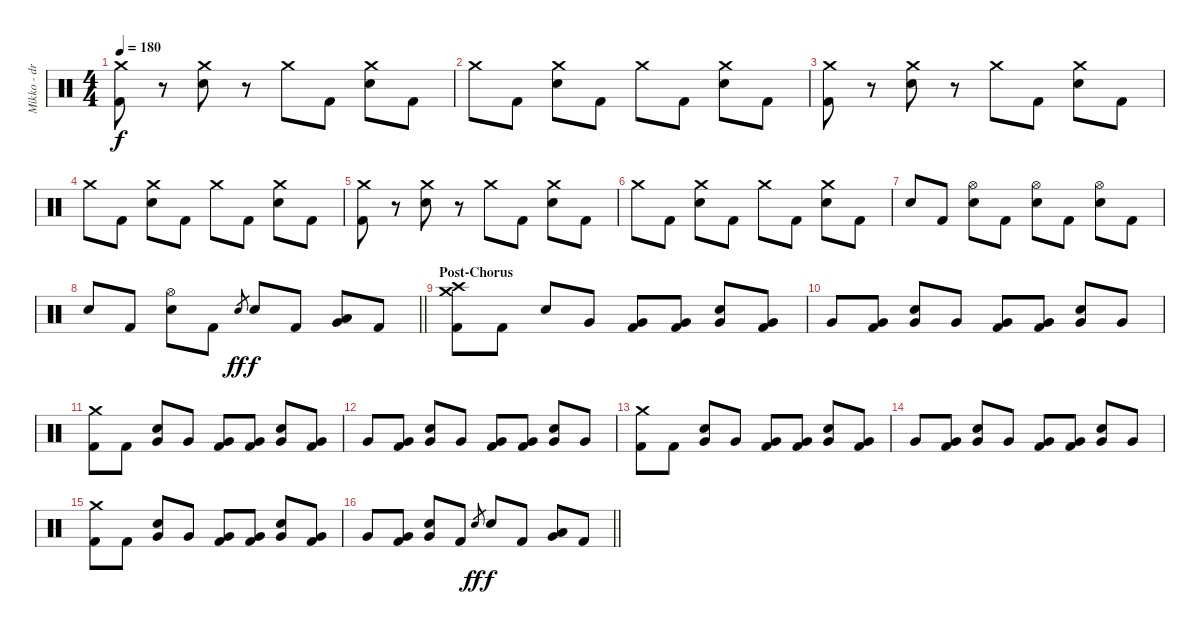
\track ("Mikko - drums" "Mikko - dr") {instrument percussion}
\staff {score}
\articulation defaults
\ts (4 4)
\tempo 180
\clef neutral
\ks c
("Crash medium (hit)" "Kick (hit) 2").8{dy f} r.8 ("Crash medium (hit)" "Snare (hit) 2").8 r.8 "Crash medium (hit)".8 "Kick (hit) 2".8 ("Crash medium (hit)" "Snare (hit) 2").8 "Kick (hit) 2".8 |
"Crash medium (hit)".8 "Kick (hit) 2".8 ("Crash medium (hit)" "Snare (hit) 2").8 "Kick (hit) 2".8 "Crash medium (hit)".8 "Kick (hit) 2".8 ("Crash medium (hit)" "Snare (hit) 2").8 "Kick (hit) 2".8 |
("Crash medium (hit)" "Kick (hit) 2").8 r.8 ("Crash medium (hit)" "Snare (hit) 2").8 r.8 "Crash medium (hit)".8 "Kick (hit) 2".8 ("Crash medium (hit)" "Snare (hit) 2").8 "Kick (hit) 2".8 |
"Crash medium (hit)".8 "Kick (hit) 2".8 ("Crash medium (hit)" "Snare (hit) 2").8 "Kick (hit) 2".8 "Crash medium (hit)".8 "Kick (hit) 2".8 ("Crash medium (hit)" "Snare (hit) 2").8 "Kick (hit) 2".8 |
("Crash medium (hit)" "Kick (hit) 2").8 r.8 ("Crash medium (hit)" "Snare (hit) 2").8 r.8 "Crash medium (hit)".8 "Kick (hit) 2".8 ("Crash medium (hit)" "Snare (hit) 2").8 "Kick (hit) 2".8 |
"Crash medium (hit)".8 "Kick (hit) 2".8 ("Crash medium (hit)" "Snare (hit) 2").8 "Kick (hit) 2".8 "Crash medium (hit)".8 "Kick (hit) 2".8 ("Crash medium (hit)" "Snare (hit) 2").8 "Kick (hit) 2".8 |
"Snare (hit) 2".8 "Kick (hit) 2".8 ("Hi-Hat (open)" "Snare (hit) 2").8 "Kick (hit) 2".8 ("Hi-Hat (open)" "Snare (hit) 2").8 "Kick (hit) 2".8 ("Hi-Hat (open)" "Snare (hit) 2").8 "Kick (hit) 2".8 |
\barLineRight lightlight "Snare (hit) 2".8 "Kick (hit) 2".8
("Hi-Hat (open)" "Snare (hit) 2").8 "Kick (hit) 2".8 "Snare (hit) 2".8{gr dy ff} "Snare (hit) 2".8{dy f} "Kick (hit) 2".8 ("Low Tom (hit)" "Very Low Tom (hit)").8 "Kick (hit) 2".8 |
\section ("" "Post-Chorus")
("Crash medium (hit)" "Crash high (hit)" "Kick (hit) 2").8 "Kick (hit) 2".8 "Snare (hit) 2".8 "Very Low Tom (hit)".8 ("Very Low Tom (hit)" "Kick (hit) 2").8 ("Very Low Tom (hit)" "Kick (hit) 2").8 ("Snare (hit) 2" "Very Low Tom (hit)").8 ("Very Low Tom (hit)" "Kick (hit) 2").8 |
"Very Low Tom (hit)".8 ("Very Low Tom (hit)" "Kick (hit) 2").8 ("Snare (hit) 2" "Very Low Tom (hit)").8 "Very Low Tom (hit)".8 ("Very Low Tom (hit)" "Kick (hit) 2").8 ("Very Low Tom (hit)" "Kick (hit) 2").8 ("Snare (hit) 2" "Very Low Tom (hit)").8 "Very Low Tom (hit)".8 |
("Crash medium (hit)" "Kick (hit) 2").8 "Kick (hit) 2".8 ("Snare (hit) 2" "Very Low Tom (hit)").8 "Very Low Tom (hit)".8 ("Very Low Tom (hit)" "Kick (hit) 2").8 ("Very Low Tom (hit)" "Kick (hit) 2").8 ("Snare (hit) 2" "Very Low Tom (hit)").8 ("Very Low Tom (hit)" "Kick (hit) 2").8 |
"Very Low Tom (hit)".8 ("Very Low Tom (hit)" "Kick (hit) 2").8 ("Snare (hit) 2" "Very Low Tom (hit)").8 "Very Low Tom (hit)".8 ("Very Low Tom (hit)" "Kick (hit) 2").8 ("Very Low Tom (hit)" "Kick (hit) 2").8 ("Snare (hit) 2" "Very Low Tom (hit)").8 "Very Low Tom (hit)".8 |
("Crash medium (hit)" "Kick (hit) 2").8 "Kick (hit) 2".8 ("Snare (hit) 2" "Very Low Tom (hit)").8 "Very Low Tom (hit)".8 ("Very Low Tom (hit)" "Kick (hit) 2").8 ("Very Low Tom (hit)" "Kick (hit) 2").8 ("Snare (hit) 2" "Very Low Tom (hit)").8 ("Very Low Tom (hit)" "Kick (hit) 2").8 |
"Very Low Tom (hit)".8 ("Very Low Tom (hit)" "Kick (hit) 2").8 ("Snare (hit) 2" "Very Low Tom (hit)").8 "Very Low Tom (hit)".8 ("Very Low Tom (hit)" "Kick (hit) 2").8 ("Very Low Tom (hit)" "Kick (hit) 2").8 ("Snare (hit) 2" "Very Low Tom (hit)").8 "Very Low Tom (hit)".8 |
("Crash medium (hit)" "Kick (hit) 2").8 "Kick (hit) 2".8 ("Snare (hit) 2" "Very Low Tom (hit)").8 "Very Low Tom (hit)".8 ("Very Low Tom (hit)" "Kick (hit) 2").8 ("Very Low Tom (hit)" "Kick (hit) 2").8 ("Snare (hit) 2" "Very Low Tom (hit)").8 ("Very Low Tom (hit)" "Kick (hit) 2").8 |
\barLineRight lightlight "Very Low Tom (hit)".8
("Very Low Tom (hit)" "Kick (hit) 2").8 ("Snare (hit) 2" "Very Low Tom (hit)").8 "Kick (hit) 2".8 "Snare (hit) 2".8{gr dy ff} "Snare (hit) 2".8{dy f} "Kick (hit) 2".8 ("Low Tom (hit)" "Very Low Tom (hit)").8 "Kick (hit) 2".8
